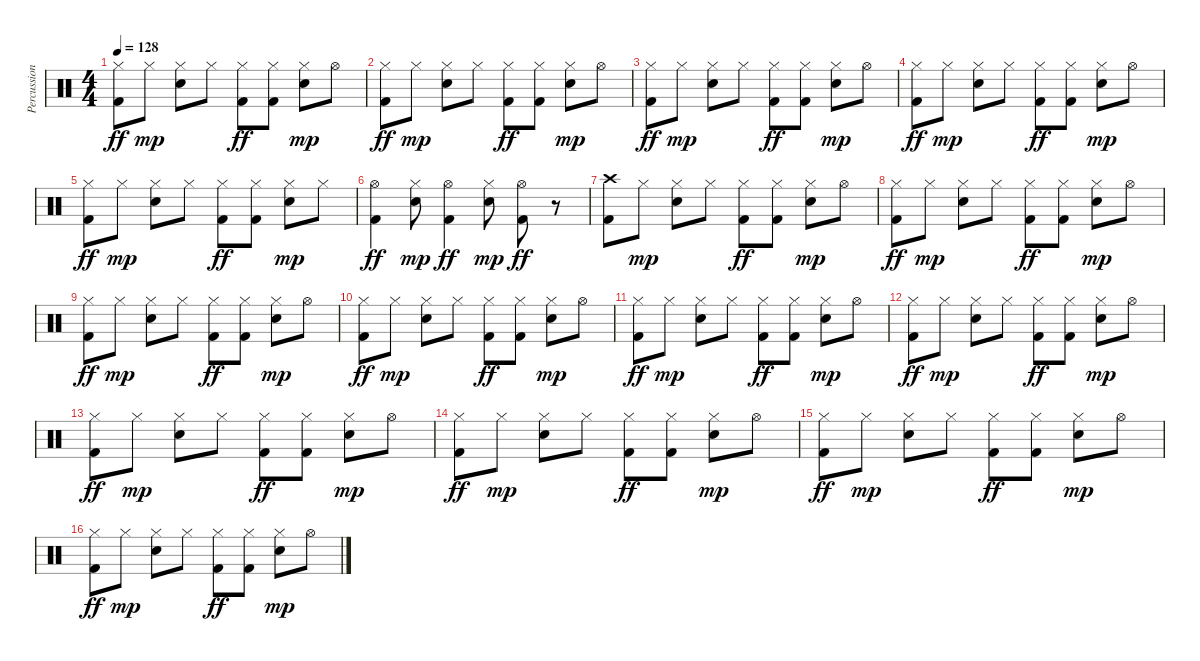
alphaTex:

\track ("Percussion" "Percussion") {instrument percussion}
\staff {score}
\articulation defaults
\ts (4 4)
\tempo 128
\clef neutral
\ks c
("Hi-Hat (closed)" "Kick (hit) 2").8{dy ff} "Hi-Hat (closed)".8{dy mp} ("Hi-Hat (closed)" "Electric Snare (hit)").8 "Hi-Hat (closed)".8 ("Hi-Hat (closed)" "Kick (hit) 2").8{dy ff} ("Hi-Hat (closed)" "Kick (hit) 2").8 ("Hi-Hat (closed)" "Electric Snare (hit)").8{dy mp} "Hi-Hat (open)".8 |
("Hi-Hat (closed)" "Kick (hit) 2").8{dy ff} "Hi-Hat (closed)".8{dy mp} ("Hi-Hat (closed)" "Electric Snare (hit)").8 "Hi-Hat (closed)".8 ("Hi-Hat (closed)" "Kick (hit) 2").8{dy ff} ("Hi-Hat (closed)" "Kick (hit) 2").8 ("Hi-Hat (closed)" "Electric Snare (hit)").8{dy mp} "Hi-Hat (open)".8 |
("Hi-Hat (closed)" "Kick (hit) 2").8{dy ff} "Hi-Hat (closed)".8{dy mp} ("Hi-Hat (closed)" "Electric Snare (hit)").8 "Hi-Hat (closed)".8 ("Hi-Hat (closed)" "Kick (hit) 2").8{dy ff} ("Hi-Hat (closed)" "Kick (hit) 2").8 ("Hi-Hat (closed)" "Electric Snare (hit)").8{dy mp} "Hi-Hat (open)".8 |
("Hi-Hat (closed)" "Kick (hit) 2").8{dy ff} "Hi-Hat (closed)".8{dy mp} ("Hi-Hat (closed)" "Electric Snare (hit)").8 "Hi-Hat (closed)".8 ("Hi-Hat (closed)" "Kick (hit) 2").8{dy ff} ("Hi-Hat (closed)" "Kick (hit) 2").8 ("Hi-Hat (closed)" "Electric Snare (hit)").8{dy mp} "Hi-Hat (open)".8 |
("Hi-Hat (closed)" "Kick (hit) 2").8{dy ff} "Hi-Hat (closed)".8{dy mp} ("Hi-Hat (closed)" "Electric Snare (hit)").8 "Hi-Hat (closed)".8 ("Hi-Hat (closed)" "Kick (hit) 2").8{dy ff} ("Hi-Hat (closed)" "Kick (hit) 2").8 ("Hi-Hat (closed)" "Electric Snare (hit)").8{dy mp} "Hi-Hat (closed)".8 |
("Hi-Hat (open)" "Kick (hit) 2").4{dy ff} ("Hi-Hat (closed)" "Electric Snare (hit)").8{dy mp} ("Hi-Hat (open)" "Kick (hit) 2").4{dy ff} ("Hi-Hat (closed)" "Electric Snare (hit)").8{dy mp} ("Hi-Hat (open)" "Kick (hit) 2").8{dy ff} r.8 |
("Crash high (hit)" "Kick (hit) 2").8 "Hi-Hat (closed)".8{dy mp} ("Hi-Hat (closed)" "Electric Snare (hit)").8 "Hi-Hat (closed)".8 ("Hi-Hat (closed)" "Kick (hit) 2").8{dy ff} ("Hi-Hat (closed)" "Kick (hit) 2").8 ("Hi-Hat (closed)" "Electric Snare (hit)").8{dy mp} "Hi-Hat (open)".8 |
("Hi-Hat (closed)" "Kick (hit) 2").8{dy ff} "Hi-Hat (closed)".8{dy mp} ("Hi-Hat (closed)" "Electric Snare (hit)").8 "Hi-Hat (closed)".8 ("Hi-Hat (closed)" "Kick (hit) 2").8{dy ff} ("Hi-Hat (closed)" "Kick (hit) 2").8 ("Hi-Hat (closed)" "Electric Snare (hit)").8{dy mp} "Hi-Hat (open)".8 |
("Hi-Hat (closed)" "Kick (hit) 2").8{dy ff} "Hi-Hat (closed)".8{dy mp} ("Hi-Hat (closed)" "Electric Snare (hit)").8 "Hi-Hat (closed)".8 ("Hi-Hat (closed)" "Kick (hit) 2").8{dy ff} ("Hi-Hat (closed)" "Kick (hit) 2").8 ("Hi-Hat (closed)" "Electric Snare (hit)").8{dy mp} "Hi-Hat (open)".8 |
("Hi-Hat (closed)" "Kick (hit) 2").8{dy ff} "Hi-Hat (closed)".8{dy mp} ("Hi-Hat (closed)" "Electric Snare (hit)").8 "Hi-Hat (closed)".8 ("Hi-Hat (closed)" "Kick (hit) 2").8{dy ff} ("Hi-Hat (closed)" "Kick (hit) 2").8 ("Hi-Hat (closed)" "Electric Snare (hit)").8{dy mp} "Hi-Hat (open)".8 |
("Hi-Hat (closed)" "Kick (hit) 2").8{dy ff} "Hi-Hat (closed)".8{dy mp} ("Hi-Hat (closed)" "Electric Snare (hit)").8 "Hi-Hat (closed)".8 ("Hi-Hat (closed)" "Kick (hit) 2").8{dy ff} ("Hi-Hat (closed)" "Kick (hit) 2").8 ("Hi-Hat (closed)" "Electric Snare (hit)").8{dy mp} "Hi-Hat (open)".8 |
("Hi-Hat (closed)" "Kick (hit) 2").8{dy ff} "Hi-Hat (closed)".8{dy mp} ("Hi-Hat (closed)" "Electric Snare (hit)").8 "Hi-Hat (closed)".8 ("Hi-Hat (closed)" "Kick (hit) 2").8{dy ff} ("Hi-Hat (closed)" "Kick (hit) 2").8 ("Hi-Hat (closed)" "Electric Snare (hit)").8{dy mp} "Hi-Hat (open)".8 |
("Hi-Hat (closed)" "Kick (hit) 2").8{dy ff} "Hi-Hat (closed)".8{dy mp} ("Hi-Hat (closed)" "Electric Snare (hit)").8 "Hi-Hat (closed)".8 ("Hi-Hat (closed)" "Kick (hit) 2").8{dy ff} ("Hi-Hat (closed)" "Kick (hit) 2").8 ("Hi-Hat (closed)" "Electric Snare (hit)").8{dy mp} "Hi-Hat (open)".8 |
("Hi-Hat (closed)" "Kick (hit) 2").8{dy ff} "Hi-Hat (closed)".8{dy mp} ("Hi-Hat (closed)" "Electric Snare (hit)").8 "Hi-Hat (closed)".8 ("Hi-Hat (closed)" "Kick (hit) 2").8{dy ff} ("Hi-Hat (closed)" "Kick (hit) 2").8 ("Hi-Hat (closed)" "Electric Snare (hit)").8{dy mp} "Hi-Hat (open)".8 |
("Hi-Hat (closed)" "Kick (hit) 2").8{dy ff} "Hi-Hat (closed)".8{dy mp} ("Hi-Hat (closed)" "Electric Snare (hit)").8 "Hi-Hat (closed)".8 ("Hi-Hat (closed)" "Kick (hit) 2").8{dy ff} ("Hi-Hat (closed)" "Kick (hit) 2").8 ("Hi-Hat (closed)" "Electric Snare (hit)").8{dy mp} "Hi-Hat (open)".8 |
("Hi-Hat (closed)" "Kick (hit) 2").8{dy ff} "Hi-Hat (closed)".8{dy mp} ("Hi-Hat (closed)" "Electric Snare (hit)").8 "Hi-Hat (closed)".8 ("Hi-Hat (closed)" "Kick (hit) 2").8{dy ff} ("Hi-Hat (closed)" "Kick (hit) 2").8 ("Hi-Hat (closed)" "Electric Snare (hit)").8{dy mp} "Hi-Hat (open)".8
